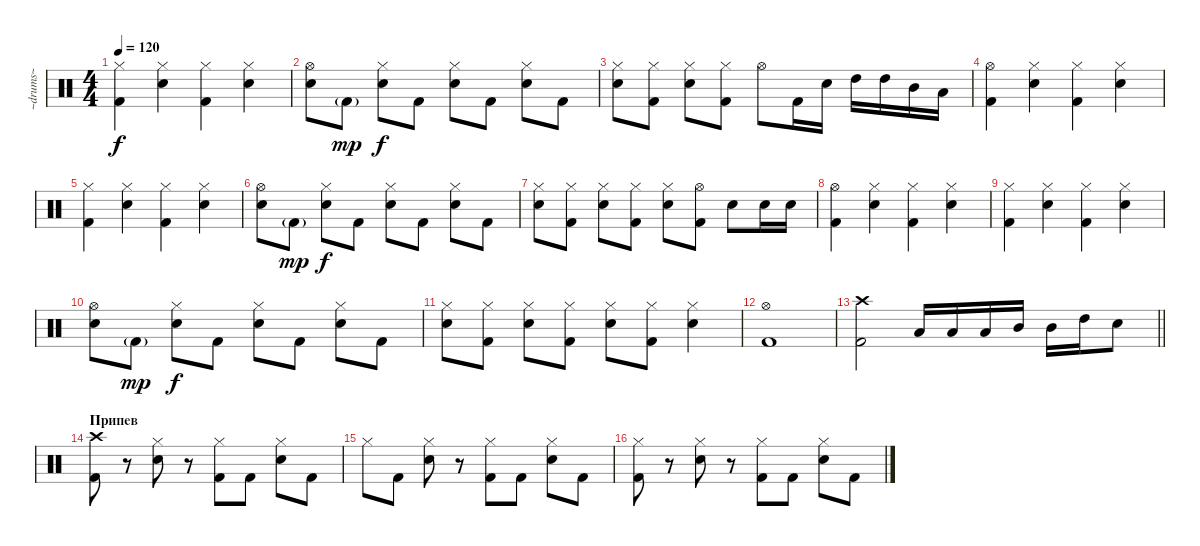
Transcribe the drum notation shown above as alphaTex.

\track ("~drums~" "~drums~") {instrument percussion}
\staff {score}
\articulation defaults
\ts (4 4)
\tempo 120
\clef neutral
\ks c
("Hi-Hat (closed)" "Kick (hit) 2").4{dy f} ("Hi-Hat (closed)" "Snare (hit) 2").4 ("Hi-Hat (closed)" "Kick (hit) 2").4 ("Hi-Hat (closed)" "Snare (hit) 2").4 |
("Hi-Hat (open)" "Snare (hit) 2").8 "Kick (hit) 2"{g}.8{dy mp} ("Hi-Hat (closed)" "Snare (hit) 2").8{dy f} "Kick (hit) 2".8 ("Hi-Hat (closed)" "Snare (hit) 2").8 "Kick (hit) 2".8 ("Hi-Hat (closed)" "Snare (hit) 2").8 "Kick (hit) 2".8 |
("Hi-Hat (closed)" "Snare (hit) 2").8 ("Hi-Hat (closed)" "Kick (hit) 2").8 ("Hi-Hat (closed)" "Snare (hit) 2").8 ("Hi-Hat (closed)" "Kick (hit) 2").8 "Hi-Hat (open)".8 "Kick (hit) 2".16 "Snare (hit) 2".16 "High Tom (hit)".16 "High Tom (hit)".16 "Mid Tom (hit)".16 "Low Tom (hit)".16 |
("Hi-Hat (open)" "Kick (hit) 2").4 ("Hi-Hat (closed)" "Snare (hit) 2").4 ("Hi-Hat (closed)" "Kick (hit) 2").4 ("Hi-Hat (closed)" "Snare (hit) 2").4 |
("Hi-Hat (closed)" "Kick (hit) 2").4 ("Hi-Hat (closed)" "Snare (hit) 2").4 ("Hi-Hat (closed)" "Kick (hit) 2").4 ("Hi-Hat (closed)" "Snare (hit) 2").4 |
("Hi-Hat (open)" "Snare (hit) 2").8 "Kick (hit) 2"{g}.8{dy mp} ("Hi-Hat (closed)" "Snare (hit) 2").8{dy f} "Kick (hit) 2".8 ("Hi-Hat (closed)" "Snare (hit) 2").8 "Kick (hit) 2".8 ("Hi-Hat (closed)" "Snare (hit) 2").8 "Kick (hit) 2".8 |
("Hi-Hat (closed)" "Snare (hit) 2").8 ("Hi-Hat (closed)" "Kick (hit) 2").8 ("Hi-Hat (closed)" "Snare (hit) 2").8 ("Hi-Hat (closed)" "Kick (hit) 2").8 ("Hi-Hat (closed)" "Snare (hit) 2").8 ("Hi-Hat (open)" "Kick (hit) 2").8 "Snare (hit) 2".8 "Snare (hit) 2".16 "Snare (hit) 2".16 |
("Hi-Hat (open)" "Kick (hit) 2").4 ("Hi-Hat (closed)" "Snare (hit) 2").4 ("Hi-Hat (closed)" "Kick (hit) 2").4 ("Hi-Hat (closed)" "Snare (hit) 2").4 |
("Hi-Hat (closed)" "Kick (hit) 2").4 ("Hi-Hat (closed)" "Snare (hit) 2").4 ("Hi-Hat (closed)" "Kick (hit) 2").4 ("Hi-Hat (closed)" "Snare (hit) 2").4 |
("Hi-Hat (open)" "Snare (hit) 2").8 "Kick (hit) 2"{g}.8{dy mp} ("Hi-Hat (closed)" "Snare (hit) 2").8{dy f} "Kick (hit) 2".8 ("Hi-Hat (closed)" "Snare (hit) 2").8 "Kick (hit) 2".8 ("Hi-Hat (closed)" "Snare (hit) 2").8 "Kick (hit) 2".8 |
("Hi-Hat (closed)" "Snare (hit) 2").8 ("Hi-Hat (closed)" "Kick (hit) 2").8 ("Hi-Hat (closed)" "Snare (hit) 2").8 ("Hi-Hat (closed)" "Kick (hit) 2").8 ("Hi-Hat (closed)" "Snare (hit) 2").8 ("Hi-Hat (closed)" "Kick (hit) 2").8 ("Hi-Hat (closed)" "Snare (hit) 2").4 |
("Hi-Hat (open)" "Kick (hit) 2").1 |
\barLineRight lightlight
("Crash high (hit)" "Kick (hit) 2").2 "Low Tom (hit)".16 "Low Tom (hit)".16 "Low Tom (hit)".16 "Mid Tom (hit)".16 "Mid Tom (hit)".16 "High Tom (hit)".16 "Snare (hit) 2".8 |
\section ("" "Припев")
("Crash high (hit)" "Kick (hit) 2").8 r.8 ("Hi-Hat (closed)" "Snare (hit) 2").8 r.8 ("Hi-Hat (closed)" "Kick (hit) 2").8 "Kick (hit) 2".8 ("Hi-Hat (closed)" "Snare (hit) 2").8 "Kick (hit) 2".8 |
"Hi-Hat (closed)".8 "Kick (hit) 2".8 ("Hi-Hat (closed)" "Snare (hit) 2").8 r.8 ("Hi-Hat (closed)" "Kick (hit) 2").8 "Kick (hit) 2".8 ("Hi-Hat (closed)" "Snare (hit) 2").8 "Kick (hit) 2".8 |
("Hi-Hat (closed)" "Kick (hit) 2").8 r.8 ("Hi-Hat (closed)" "Snare (hit) 2").8 r.8 ("Hi-Hat (closed)" "Kick (hit) 2").8 "Kick (hit) 2".8 ("Hi-Hat (closed)" "Snare (hit) 2").8 "Kick (hit) 2".8
